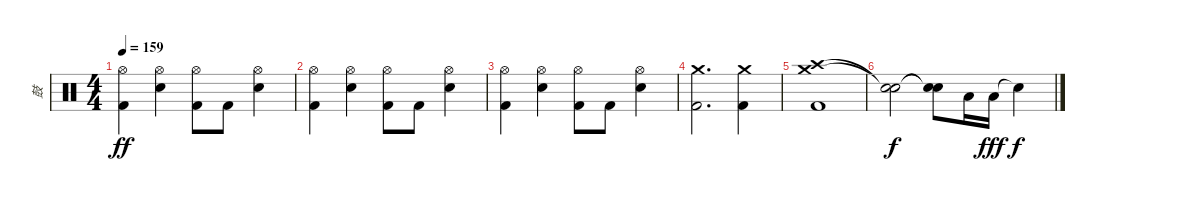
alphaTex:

\track ("鼓" "鼓") {instrument percussion}
\staff {score}
\articulation defaults
\ts (4 4)
\tempo 159
\clef neutral
\ks c
("Hi-Hat (open)" "Kick (hit) 2").4{dy ff} ("Hi-Hat (open)" "Electric Snare (hit)").4 ("Hi-Hat (open)" "Kick (hit) 2").8 "Kick (hit) 2".8 ("Hi-Hat (open)" "Electric Snare (hit)").4 |
("Hi-Hat (open)" "Kick (hit) 2").4 ("Hi-Hat (open)" "Electric Snare (hit)").4 ("Hi-Hat (open)" "Kick (hit) 2").8 "Kick (hit) 2".8 ("Hi-Hat (open)" "Electric Snare (hit)").4 |
("Hi-Hat (open)" "Kick (hit) 2").4 ("Hi-Hat (open)" "Electric Snare (hit)").4 ("Hi-Hat (open)" "Kick (hit) 2").8 "Kick (hit) 2".8 ("Hi-Hat (open)" "Electric Snare (hit)").4 |
("Crash medium (hit)" "Kick (hit) 2").2{d} ("Crash medium (hit)" "Kick (hit) 2").4 |
("Crash high (hit)" "Crash medium (hit)" "Kick (hit) 2").1 |
("Snare (hit)"{t} "Snare (hit)"{t}).2{dy f} ("Snare (hit)"{t} "Snare (hit)"{t}).8 "Low Floor Tom (hit)".16 "Low Floor Tom (hit)".16{dy fff} "Snare (hit)"{t}.4{dy f}
